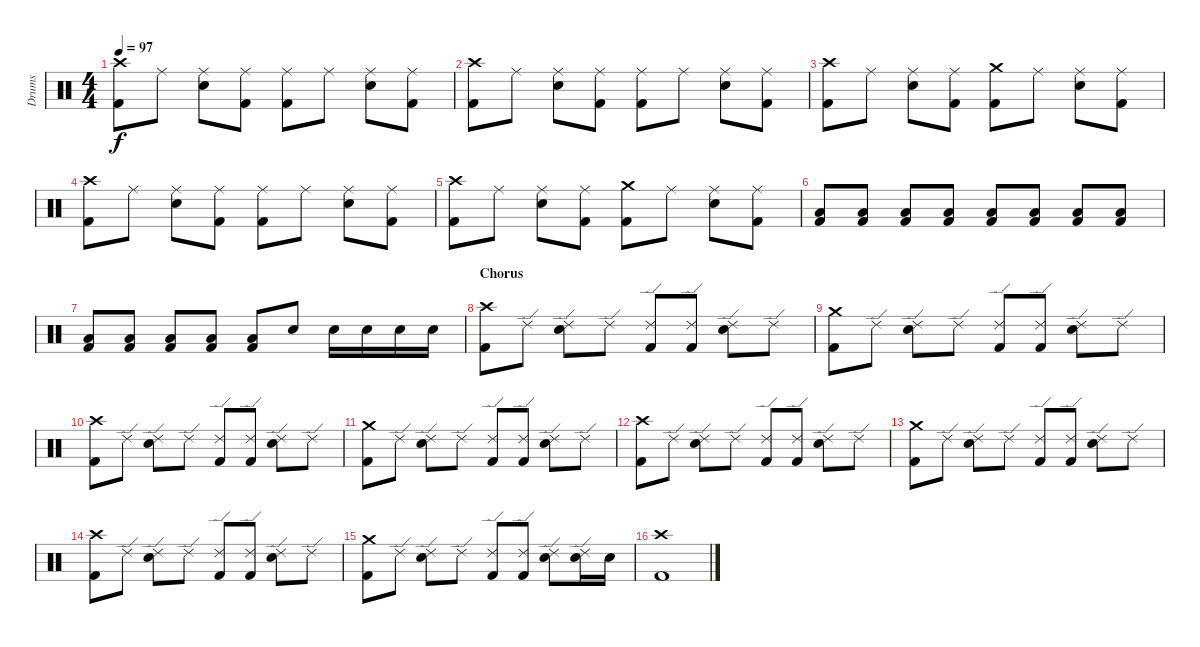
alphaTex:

\track ("Drums" "Drums") {instrument percussion}
\staff {score}
\articulation defaults
\ts (4 4)
\tempo 97
\clef neutral
\ks c
("Crash high (hit)" "Kick (hit) 2").8{dy f} "Ride (middle)".8 ("Ride (middle)" "Snare (hit) 2").8 ("Ride (middle)" "Kick (hit) 2").8 ("Ride (middle)" "Kick (hit) 2").8 "Ride (middle)".8 ("Ride (middle)" "Snare (hit) 2").8 ("Ride (middle)" "Kick (hit) 2").8 |
("Crash high (hit)" "Kick (hit) 2").8 "Ride (middle)".8 ("Ride (middle)" "Snare (hit) 2").8 ("Ride (middle)" "Kick (hit) 2").8 ("Ride (middle)" "Kick (hit) 2").8 "Ride (middle)".8 ("Ride (middle)" "Snare (hit) 2").8 ("Ride (middle)" "Kick (hit) 2").8 |
("Crash high (hit)" "Kick (hit) 2").8 "Ride (middle)".8 ("Ride (middle)" "Snare (hit) 2").8 ("Ride (middle)" "Kick (hit) 2").8 ("Crash medium (hit)" "Kick (hit) 2").8 "Ride (middle)".8 ("Ride (middle)" "Snare (hit) 2").8 ("Ride (middle)" "Kick (hit) 2").8 |
("Crash high (hit)" "Kick (hit) 2").8 "Ride (middle)".8 ("Ride (middle)" "Snare (hit) 2").8 ("Ride (middle)" "Kick (hit) 2").8 ("Ride (middle)" "Kick (hit) 2").8 "Ride (middle)".8 ("Ride (middle)" "Snare (hit) 2").8 ("Ride (middle)" "Kick (hit) 2").8 |
("Crash high (hit)" "Kick (hit) 2").8 "Ride (middle)".8 ("Ride (middle)" "Snare (hit) 2").8 ("Ride (middle)" "Kick (hit) 2").8 ("Crash medium (hit)" "Kick (hit) 2").8 "Ride (middle)".8 ("Ride (middle)" "Snare (hit) 2").8 ("Ride (middle)" "Kick (hit) 2").8 |
("Low Tom (hit)" "Kick (hit) 2").8 ("Low Tom (hit)" "Kick (hit) 2").8 ("Low Tom (hit)" "Kick (hit) 2").8 ("Low Tom (hit)" "Kick (hit) 2").8 ("Low Tom (hit)" "Kick (hit) 2").8 ("Low Tom (hit)" "Kick (hit) 2").8 ("Low Tom (hit)" "Kick (hit) 2").8 ("Low Tom (hit)" "Kick (hit) 2").8 |
("Low Tom (hit)" "Kick (hit) 2").8 ("Low Tom (hit)" "Kick (hit) 2").8 ("Low Tom (hit)" "Kick (hit) 2").8 ("Low Tom (hit)" "Kick (hit) 2").8 ("Low Tom (hit)" "Kick (hit) 2").8 "Snare (hit) 2".8 "Snare (hit) 2".16 "Snare (hit) 2".16 "Snare (hit) 2".16 "Snare (hit) 2".16 |
\section ("" "Chorus")
("Crash high (hit)" "Kick (hit) 2").8 "Ride (edge) 2".8 ("Ride (edge) 2" "Snare (hit) 2").8 "Ride (edge) 2".8 ("Ride (edge) 2" "Kick (hit) 2").8 ("Ride (edge) 2" "Kick (hit) 2").8 ("Ride (edge) 2" "Snare (hit) 2").8 "Ride (edge) 2".8 |
("Crash medium (hit)" "Kick (hit) 2").8 "Ride (edge) 2".8 ("Ride (edge) 2" "Snare (hit) 2").8 "Ride (edge) 2".8 ("Ride (edge) 2" "Kick (hit) 2").8 ("Ride (edge) 2" "Kick (hit) 2").8 ("Ride (edge) 2" "Snare (hit) 2").8 "Ride (edge) 2".8 |
("Crash high (hit)" "Kick (hit) 2").8 "Ride (edge) 2".8 ("Ride (edge) 2" "Snare (hit) 2").8 "Ride (edge) 2".8 ("Ride (edge) 2" "Kick (hit) 2").8 ("Ride (edge) 2" "Kick (hit) 2").8 ("Ride (edge) 2" "Snare (hit) 2").8 "Ride (edge) 2".8 |
("Crash medium (hit)" "Kick (hit) 2").8 "Ride (edge) 2".8 ("Ride (edge) 2" "Snare (hit) 2").8 "Ride (edge) 2".8 ("Ride (edge) 2" "Kick (hit) 2").8 ("Ride (edge) 2" "Kick (hit) 2").8 ("Ride (edge) 2" "Snare (hit) 2").8 "Ride (edge) 2".8 |
("Crash high (hit)" "Kick (hit) 2").8 "Ride (edge) 2".8 ("Ride (edge) 2" "Snare (hit) 2").8 "Ride (edge) 2".8 ("Ride (edge) 2" "Kick (hit) 2").8 ("Ride (edge) 2" "Kick (hit) 2").8 ("Ride (edge) 2" "Snare (hit) 2").8 "Ride (edge) 2".8 |
("Crash medium (hit)" "Kick (hit) 2").8 "Ride (edge) 2".8 ("Ride (edge) 2" "Snare (hit) 2").8 "Ride (edge) 2".8 ("Ride (edge) 2" "Kick (hit) 2").8 ("Ride (edge) 2" "Kick (hit) 2").8 ("Ride (edge) 2" "Snare (hit) 2").8 "Ride (edge) 2".8 |
("Crash high (hit)" "Kick (hit) 2").8 "Ride (edge) 2".8 ("Ride (edge) 2" "Snare (hit) 2").8 "Ride (edge) 2".8 ("Ride (edge) 2" "Kick (hit) 2").8 ("Ride (edge) 2" "Kick (hit) 2").8 ("Ride (edge) 2" "Snare (hit) 2").8 "Ride (edge) 2".8 |
("Crash medium (hit)" "Kick (hit) 2").8 "Ride (edge) 2".8 ("Ride (edge) 2" "Snare (hit) 2").8 "Ride (edge) 2".8 ("Ride (edge) 2" "Kick (hit) 2").8 ("Ride (edge) 2" "Kick (hit) 2").8 ("Ride (edge) 2" "Snare (hit) 2").8 ("Ride (edge) 2" "Snare (hit) 2").16 "Snare (hit) 2".16 |
("Crash high (hit)" "Kick (hit) 2").1
